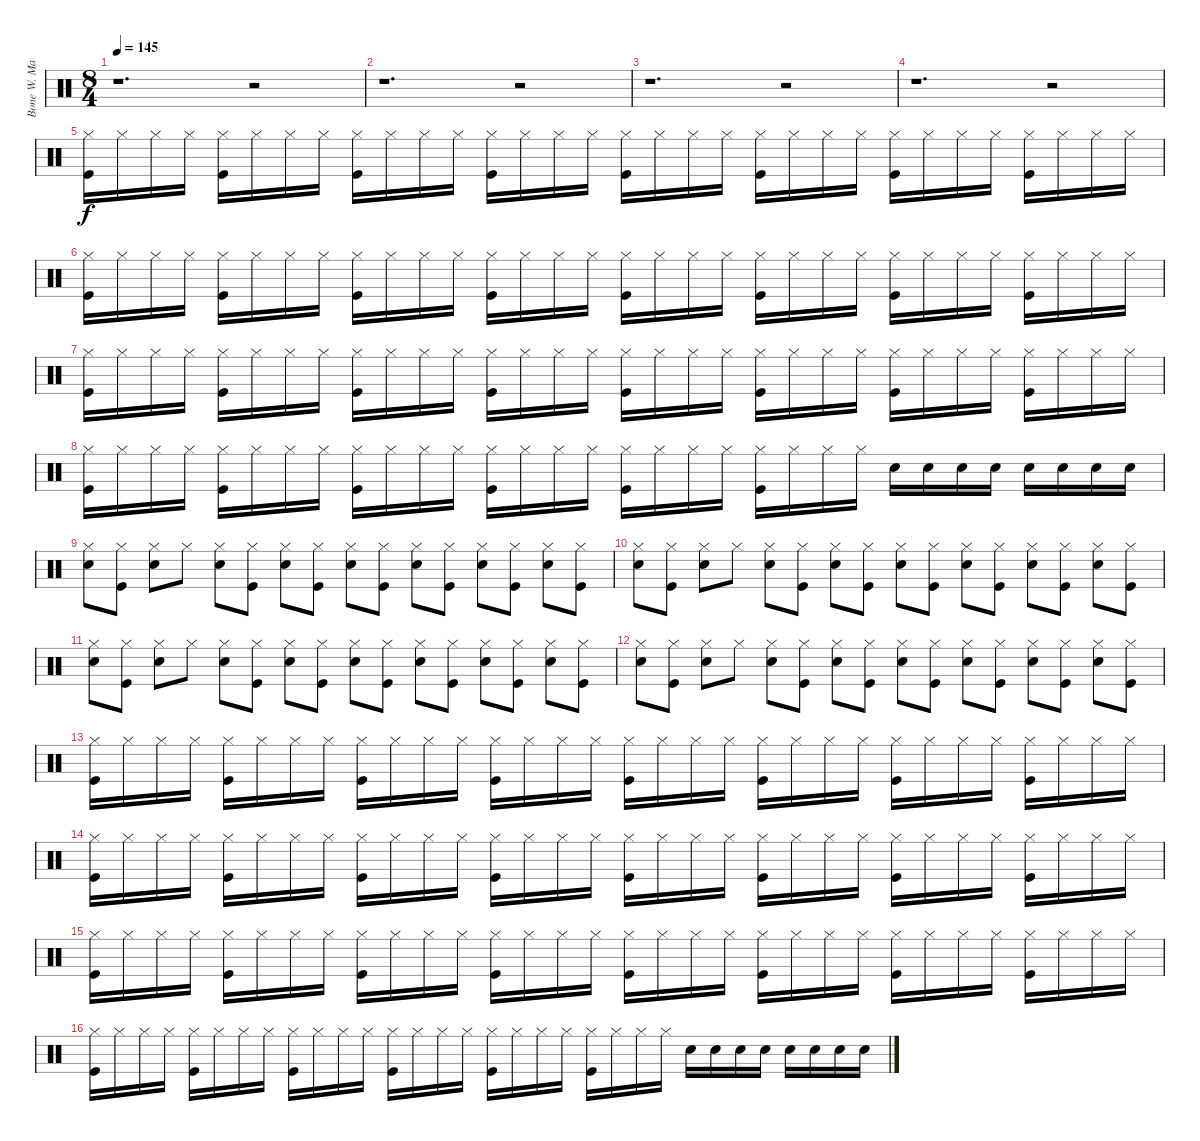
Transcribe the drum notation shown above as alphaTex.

\track ("Bone W. Machine" "Bone W. Ma") {instrument percussion}
\staff {score}
\articulation defaults
\ts (8 4)
\tempo 145
\clef neutral
\ks c
r.1{d dy f} r.2 |
r.1{d} r.2 |
r.1{d} r.2 |
r.1{d} r.2 |
("Kick (hit)" "Hi-Hat (closed)").16 "Hi-Hat (closed)".16 "Hi-Hat (closed)".16 "Hi-Hat (closed)".16 ("Kick (hit)" "Hi-Hat (closed)").16 "Hi-Hat (closed)".16 "Hi-Hat (closed)".16 "Hi-Hat (closed)".16 ("Kick (hit)" "Hi-Hat (closed)").16 "Hi-Hat (closed)".16 "Hi-Hat (closed)".16 "Hi-Hat (closed)".16 ("Kick (hit)" "Hi-Hat (closed)").16 "Hi-Hat (closed)".16 "Hi-Hat (closed)".16 "Hi-Hat (closed)".16 ("Kick (hit)" "Hi-Hat (closed)").16 "Hi-Hat (closed)".16 "Hi-Hat (closed)".16 "Hi-Hat (closed)".16 ("Kick (hit)" "Hi-Hat (closed)").16 "Hi-Hat (closed)".16 "Hi-Hat (closed)".16 "Hi-Hat (closed)".16 ("Kick (hit)" "Hi-Hat (closed)").16 "Hi-Hat (closed)".16 "Hi-Hat (closed)".16 "Hi-Hat (closed)".16 ("Kick (hit)" "Hi-Hat (closed)").16 "Hi-Hat (closed)".16 "Hi-Hat (closed)".16 "Hi-Hat (closed)".16 |
("Kick (hit)" "Hi-Hat (closed)").16 "Hi-Hat (closed)".16 "Hi-Hat (closed)".16 "Hi-Hat (closed)".16 ("Kick (hit)" "Hi-Hat (closed)").16 "Hi-Hat (closed)".16 "Hi-Hat (closed)".16 "Hi-Hat (closed)".16 ("Kick (hit)" "Hi-Hat (closed)").16 "Hi-Hat (closed)".16 "Hi-Hat (closed)".16 "Hi-Hat (closed)".16 ("Kick (hit)" "Hi-Hat (closed)").16 "Hi-Hat (closed)".16 "Hi-Hat (closed)".16 "Hi-Hat (closed)".16 ("Kick (hit)" "Hi-Hat (closed)").16 "Hi-Hat (closed)".16 "Hi-Hat (closed)".16 "Hi-Hat (closed)".16 ("Kick (hit)" "Hi-Hat (closed)").16 "Hi-Hat (closed)".16 "Hi-Hat (closed)".16 "Hi-Hat (closed)".16 ("Kick (hit)" "Hi-Hat (closed)").16 "Hi-Hat (closed)".16 "Hi-Hat (closed)".16 "Hi-Hat (closed)".16 ("Kick (hit)" "Hi-Hat (closed)").16 "Hi-Hat (closed)".16 "Hi-Hat (closed)".16 "Hi-Hat (closed)".16 |
("Kick (hit)" "Hi-Hat (closed)").16 "Hi-Hat (closed)".16 "Hi-Hat (closed)".16 "Hi-Hat (closed)".16 ("Kick (hit)" "Hi-Hat (closed)").16 "Hi-Hat (closed)".16 "Hi-Hat (closed)".16 "Hi-Hat (closed)".16 ("Kick (hit)" "Hi-Hat (closed)").16 "Hi-Hat (closed)".16 "Hi-Hat (closed)".16 "Hi-Hat (closed)".16 ("Kick (hit)" "Hi-Hat (closed)").16 "Hi-Hat (closed)".16 "Hi-Hat (closed)".16 "Hi-Hat (closed)".16 ("Kick (hit)" "Hi-Hat (closed)").16 "Hi-Hat (closed)".16 "Hi-Hat (closed)".16 "Hi-Hat (closed)".16 ("Kick (hit)" "Hi-Hat (closed)").16 "Hi-Hat (closed)".16 "Hi-Hat (closed)".16 "Hi-Hat (closed)".16 ("Kick (hit)" "Hi-Hat (closed)").16 "Hi-Hat (closed)".16 "Hi-Hat (closed)".16 "Hi-Hat (closed)".16 ("Kick (hit)" "Hi-Hat (closed)").16 "Hi-Hat (closed)".16 "Hi-Hat (closed)".16 "Hi-Hat (closed)".16 |
("Kick (hit)" "Hi-Hat (closed)").16 "Hi-Hat (closed)".16 "Hi-Hat (closed)".16 "Hi-Hat (closed)".16 ("Kick (hit)" "Hi-Hat (closed)").16 "Hi-Hat (closed)".16 "Hi-Hat (closed)".16 "Hi-Hat (closed)".16 ("Kick (hit)" "Hi-Hat (closed)").16 "Hi-Hat (closed)".16 "Hi-Hat (closed)".16 "Hi-Hat (closed)".16 ("Kick (hit)" "Hi-Hat (closed)").16 "Hi-Hat (closed)".16 "Hi-Hat (closed)".16 "Hi-Hat (closed)".16 ("Kick (hit)" "Hi-Hat (closed)").16 "Hi-Hat (closed)".16 "Hi-Hat (closed)".16 "Hi-Hat (closed)".16 ("Kick (hit)" "Hi-Hat (closed)").16 "Hi-Hat (closed)".16 "Hi-Hat (closed)".16 "Hi-Hat (closed)".16 "Snare (hit) 2".16 "Snare (hit) 2".16 "Snare (hit) 2".16 "Snare (hit) 2".16 "Snare (hit) 2".16 "Snare (hit) 2".16 "Snare (hit) 2".16 "Snare (hit) 2".16 |
("Hi-Hat (closed)" "Electric Snare (hit)").8 ("Kick (hit)" "Hi-Hat (closed)").8 ("Hi-Hat (closed)" "Electric Snare (hit)").8 "Hi-Hat (closed)".8 ("Hi-Hat (closed)" "Electric Snare (hit)").8 ("Kick (hit)" "Hi-Hat (closed)").8 ("Hi-Hat (closed)" "Electric Snare (hit)").8 ("Kick (hit)" "Hi-Hat (closed)").8 ("Hi-Hat (closed)" "Electric Snare (hit)").8 ("Kick (hit)" "Hi-Hat (closed)").8 ("Hi-Hat (closed)" "Electric Snare (hit)").8 ("Kick (hit)" "Hi-Hat (closed)").8 ("Hi-Hat (closed)" "Electric Snare (hit)").8 ("Kick (hit)" "Hi-Hat (closed)").8 ("Hi-Hat (closed)" "Electric Snare (hit)").8 ("Kick (hit)" "Hi-Hat (closed)").8 |
("Hi-Hat (closed)" "Electric Snare (hit)").8 ("Kick (hit)" "Hi-Hat (closed)").8 ("Hi-Hat (closed)" "Electric Snare (hit)").8 "Hi-Hat (closed)".8 ("Hi-Hat (closed)" "Electric Snare (hit)").8 ("Kick (hit)" "Hi-Hat (closed)").8 ("Hi-Hat (closed)" "Electric Snare (hit)").8 ("Kick (hit)" "Hi-Hat (closed)").8 ("Hi-Hat (closed)" "Electric Snare (hit)").8 ("Kick (hit)" "Hi-Hat (closed)").8 ("Hi-Hat (closed)" "Electric Snare (hit)").8 ("Kick (hit)" "Hi-Hat (closed)").8 ("Hi-Hat (closed)" "Electric Snare (hit)").8 ("Kick (hit)" "Hi-Hat (closed)").8 ("Hi-Hat (closed)" "Electric Snare (hit)").8 ("Kick (hit)" "Hi-Hat (closed)").8 |
("Hi-Hat (closed)" "Electric Snare (hit)").8 ("Kick (hit)" "Hi-Hat (closed)").8 ("Hi-Hat (closed)" "Electric Snare (hit)").8 "Hi-Hat (closed)".8 ("Hi-Hat (closed)" "Electric Snare (hit)").8 ("Kick (hit)" "Hi-Hat (closed)").8 ("Hi-Hat (closed)" "Electric Snare (hit)").8 ("Kick (hit)" "Hi-Hat (closed)").8 ("Hi-Hat (closed)" "Electric Snare (hit)").8 ("Kick (hit)" "Hi-Hat (closed)").8 ("Hi-Hat (closed)" "Electric Snare (hit)").8 ("Kick (hit)" "Hi-Hat (closed)").8 ("Hi-Hat (closed)" "Electric Snare (hit)").8 ("Kick (hit)" "Hi-Hat (closed)").8 ("Hi-Hat (closed)" "Electric Snare (hit)").8 ("Kick (hit)" "Hi-Hat (closed)").8 |
("Hi-Hat (closed)" "Electric Snare (hit)").8 ("Kick (hit)" "Hi-Hat (closed)").8 ("Hi-Hat (closed)" "Electric Snare (hit)").8 "Hi-Hat (closed)".8 ("Hi-Hat (closed)" "Electric Snare (hit)").8 ("Kick (hit)" "Hi-Hat (closed)").8 ("Hi-Hat (closed)" "Electric Snare (hit)").8 ("Kick (hit)" "Hi-Hat (closed)").8 ("Hi-Hat (closed)" "Electric Snare (hit)").8 ("Kick (hit)" "Hi-Hat (closed)").8 ("Hi-Hat (closed)" "Electric Snare (hit)").8 ("Kick (hit)" "Hi-Hat (closed)").8 ("Hi-Hat (closed)" "Electric Snare (hit)").8 ("Kick (hit)" "Hi-Hat (closed)").8 ("Hi-Hat (closed)" "Electric Snare (hit)").8 ("Kick (hit)" "Hi-Hat (closed)").8 |
("Kick (hit)" "Hi-Hat (closed)").16 "Hi-Hat (closed)".16 "Hi-Hat (closed)".16 "Hi-Hat (closed)".16 ("Kick (hit)" "Hi-Hat (closed)").16 "Hi-Hat (closed)".16 "Hi-Hat (closed)".16 "Hi-Hat (closed)".16 ("Kick (hit)" "Hi-Hat (closed)").16 "Hi-Hat (closed)".16 "Hi-Hat (closed)".16 "Hi-Hat (closed)".16 ("Kick (hit)" "Hi-Hat (closed)").16 "Hi-Hat (closed)".16 "Hi-Hat (closed)".16 "Hi-Hat (closed)".16 ("Kick (hit)" "Hi-Hat (closed)").16 "Hi-Hat (closed)".16 "Hi-Hat (closed)".16 "Hi-Hat (closed)".16 ("Kick (hit)" "Hi-Hat (closed)").16 "Hi-Hat (closed)".16 "Hi-Hat (closed)".16 "Hi-Hat (closed)".16 ("Kick (hit)" "Hi-Hat (closed)").16 "Hi-Hat (closed)".16 "Hi-Hat (closed)".16 "Hi-Hat (closed)".16 ("Kick (hit)" "Hi-Hat (closed)").16 "Hi-Hat (closed)".16 "Hi-Hat (closed)".16 "Hi-Hat (closed)".16 |
("Kick (hit)" "Hi-Hat (closed)").16 "Hi-Hat (closed)".16 "Hi-Hat (closed)".16 "Hi-Hat (closed)".16 ("Kick (hit)" "Hi-Hat (closed)").16 "Hi-Hat (closed)".16 "Hi-Hat (closed)".16 "Hi-Hat (closed)".16 ("Kick (hit)" "Hi-Hat (closed)").16 "Hi-Hat (closed)".16 "Hi-Hat (closed)".16 "Hi-Hat (closed)".16 ("Kick (hit)" "Hi-Hat (closed)").16 "Hi-Hat (closed)".16 "Hi-Hat (closed)".16 "Hi-Hat (closed)".16 ("Kick (hit)" "Hi-Hat (closed)").16 "Hi-Hat (closed)".16 "Hi-Hat (closed)".16 "Hi-Hat (closed)".16 ("Kick (hit)" "Hi-Hat (closed)").16 "Hi-Hat (closed)".16 "Hi-Hat (closed)".16 "Hi-Hat (closed)".16 ("Kick (hit)" "Hi-Hat (closed)").16 "Hi-Hat (closed)".16 "Hi-Hat (closed)".16 "Hi-Hat (closed)".16 ("Kick (hit)" "Hi-Hat (closed)").16 "Hi-Hat (closed)".16 "Hi-Hat (closed)".16 "Hi-Hat (closed)".16 |
("Kick (hit)" "Hi-Hat (closed)").16 "Hi-Hat (closed)".16 "Hi-Hat (closed)".16 "Hi-Hat (closed)".16 ("Kick (hit)" "Hi-Hat (closed)").16 "Hi-Hat (closed)".16 "Hi-Hat (closed)".16 "Hi-Hat (closed)".16 ("Kick (hit)" "Hi-Hat (closed)").16 "Hi-Hat (closed)".16 "Hi-Hat (closed)".16 "Hi-Hat (closed)".16 ("Kick (hit)" "Hi-Hat (closed)").16 "Hi-Hat (closed)".16 "Hi-Hat (closed)".16 "Hi-Hat (closed)".16 ("Kick (hit)" "Hi-Hat (closed)").16 "Hi-Hat (closed)".16 "Hi-Hat (closed)".16 "Hi-Hat (closed)".16 ("Kick (hit)" "Hi-Hat (closed)").16 "Hi-Hat (closed)".16 "Hi-Hat (closed)".16 "Hi-Hat (closed)".16 ("Kick (hit)" "Hi-Hat (closed)").16 "Hi-Hat (closed)".16 "Hi-Hat (closed)".16 "Hi-Hat (closed)".16 ("Kick (hit)" "Hi-Hat (closed)").16 "Hi-Hat (closed)".16 "Hi-Hat (closed)".16 "Hi-Hat (closed)".16 |
("Kick (hit)" "Hi-Hat (closed)").16 "Hi-Hat (closed)".16 "Hi-Hat (closed)".16 "Hi-Hat (closed)".16 ("Kick (hit)" "Hi-Hat (closed)").16 "Hi-Hat (closed)".16 "Hi-Hat (closed)".16 "Hi-Hat (closed)".16 ("Kick (hit)" "Hi-Hat (closed)").16 "Hi-Hat (closed)".16 "Hi-Hat (closed)".16 "Hi-Hat (closed)".16 ("Kick (hit)" "Hi-Hat (closed)").16 "Hi-Hat (closed)".16 "Hi-Hat (closed)".16 "Hi-Hat (closed)".16 ("Kick (hit)" "Hi-Hat (closed)").16 "Hi-Hat (closed)".16 "Hi-Hat (closed)".16 "Hi-Hat (closed)".16 ("Kick (hit)" "Hi-Hat (closed)").16 "Hi-Hat (closed)".16 "Hi-Hat (closed)".16 "Hi-Hat (closed)".16 "Snare (hit) 2".16 "Snare (hit) 2".16 "Snare (hit) 2".16 "Snare (hit) 2".16 "Snare (hit) 2".16 "Snare (hit) 2".16 "Snare (hit) 2".16 "Snare (hit) 2".16
